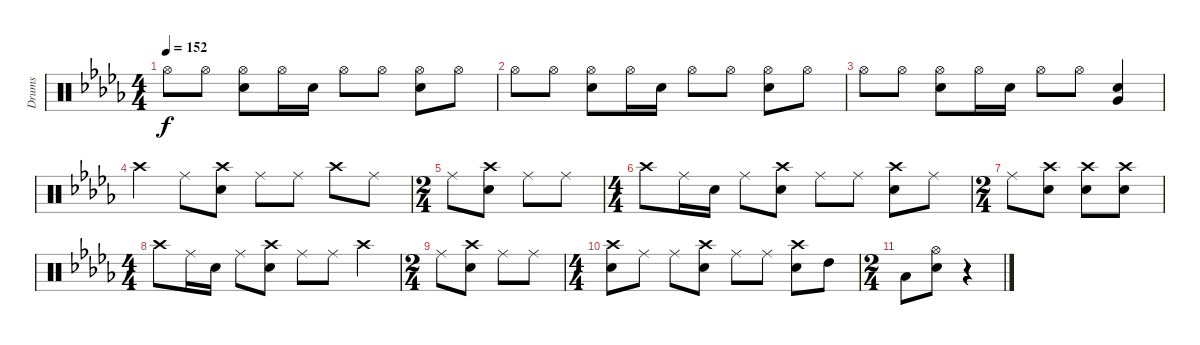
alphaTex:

\track ("Drums" "Drums") {instrument percussion}
\staff {score}
\articulation defaults
\ts (4 4)
\tempo 152
\clef neutral
\ks db "Hi-Hat (open)".8{dy f} "Hi-Hat (open)".8
("Hi-Hat (open)" "Snare (hit) 2").8 "Hi-Hat (open)".16 "Snare (hit) 2".16 "Hi-Hat (open)".8 "Hi-Hat (open)".8 ("Hi-Hat (open)" "Snare (hit) 2").8 "Hi-Hat (open)".8 |
"Hi-Hat (open)".8 "Hi-Hat (open)".8 ("Hi-Hat (open)" "Snare (hit) 2").8 "Hi-Hat (open)".16 "Snare (hit) 2".16 "Hi-Hat (open)".8 "Hi-Hat (open)".8 ("Hi-Hat (open)" "Snare (hit) 2").8 "Hi-Hat (open)".8 |
"Hi-Hat (open)".8 "Hi-Hat (open)".8 ("Hi-Hat (open)" "Snare (hit) 2").8 "Hi-Hat (open)".16 "Snare (hit) 2".16 "Hi-Hat (open)".8 "Hi-Hat (open)".8 ("Snare (hit) 2" "Very Low Tom (hit)").4 |
"Crash high (hit)".4 "Ride (middle)".8 ("Crash high (hit)" "Snare (hit) 2").8 "Ride (middle)".8 "Ride (middle)".8 "Crash high (hit)".8 "Ride (middle)".8 |
\ts (2 4)
"Ride (middle)".8 ("Crash high (hit)" "Snare (hit) 2").8 "Ride (middle)".8 "Ride (middle)".8 |
\ts (4 4)
"Crash high (hit)".8 "Ride (middle)".16 "Snare (hit) 2".16 "Ride (middle)".8 ("Crash high (hit)" "Snare (hit) 2").8 "Ride (middle)".8 "Ride (middle)".8 ("Crash high (hit)" "Snare (hit) 2").8 "Ride (middle)".8 |
\ts (2 4)
"Ride (middle)".8 ("Crash high (hit)" "Snare (hit) 2").8 ("Crash high (hit)" "Snare (hit) 2").8 ("Crash high (hit)" "Snare (hit) 2").8 |
\ts (4 4)
"Crash high (hit)".8 "Ride (middle)".16 "Snare (hit) 2".16 "Ride (middle)".8 ("Crash high (hit)" "Snare (hit) 2").8 "Ride (middle)".8 "Ride (middle)".8 "Crash high (hit)".4 |
\ts (2 4)
"Ride (middle)".8 ("Crash high (hit)" "Snare (hit) 2").8 "Ride (middle)".8 "Ride (middle)".8 |
\ts (4 4)
("Crash high (hit)" "Snare (hit) 2").8 "Ride (middle)".8 "Ride (middle)".8 ("Crash high (hit)" "Snare (hit) 2").8 "Ride (middle)".8 "Ride (middle)".8 ("Crash high (hit)" "Snare (hit) 2").8 "High Tom (hit)".8 |
\ts (2 4)
"Low Tom (hit)".8 ("Hi-Hat (open)"{tr (42 16)} "Snare (hit) 2").8 r.4
